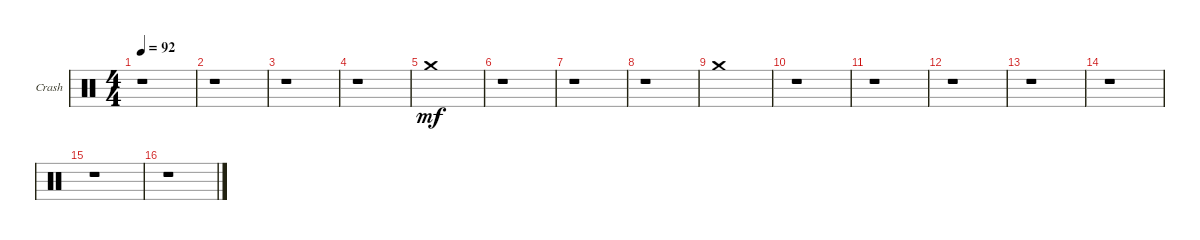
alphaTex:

\bracketExtendMode groupsimilarinstruments
\firstSystemTrackNameOrientation horizontal
\otherSystemsTrackNameOrientation horizontal
\track (" Crash" " Crash") {instrument percussion}
\staff {score}
\articulation defaults
\ts (4 4)
\tempo 92
\clef neutral
\ks c
r.1{dy mf} |
r.1 |
r.1 |
r.1 |
"Crash medium (hit)".1 |
r.1 |
r.1 |
r.1 |
"Crash medium (hit)".1 |
r.1 |
r.1 |
r.1 |
r.1 |
r.1 |
r.1 |
r.1
